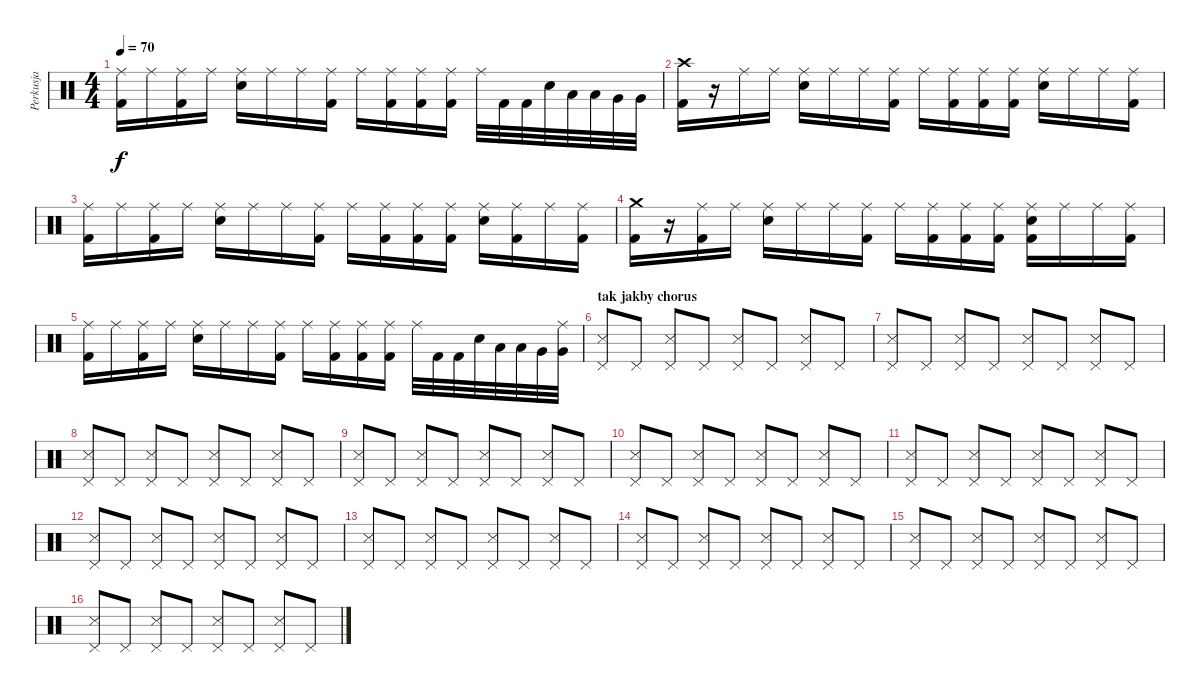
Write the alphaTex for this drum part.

\track ("Perkusja" "Perkusja") {instrument percussion}
\staff {score}
\articulation defaults
\ts (4 4)
\tempo 70
\clef neutral
\ks c
("Ride (middle)" "Kick (hit) 2").16{dy f} "Ride (middle)".16 ("Ride (middle)" "Kick (hit) 2").16 "Ride (middle)".16 ("Ride (middle)" "Electric Snare (hit)").16 "Ride (middle)".16 "Ride (middle)".16 ("Ride (middle)" "Kick (hit) 2").16 "Ride (middle)".16 ("Ride (middle)" "Kick (hit) 2").16 ("Ride (middle)" "Kick (hit) 2").16 ("Ride (middle)" "Kick (hit) 2").16 "Ride (middle)".32 "Kick (hit) 2".32 "Kick (hit) 2".32 "Electric Snare (hit)".32 "Low Tom (hit)".32 "Low Tom (hit)".32 "Very Low Tom (hit)".32 "Very Low Tom (hit)".32 |
("Crash high (hit)" "Kick (hit) 2").16 r.16 "Ride (middle)".16 "Ride (middle)".16 ("Ride (middle)" "Electric Snare (hit)").16 "Ride (middle)".16 "Ride (middle)".16 ("Ride (middle)" "Kick (hit) 2").16 "Ride (middle)".16 ("Ride (middle)" "Kick (hit) 2").16 ("Ride (middle)" "Kick (hit) 2").16 ("Ride (middle)" "Kick (hit) 2").16 ("Ride (middle)" "Electric Snare (hit)").16 "Ride (middle)".16 "Ride (middle)".16 ("Ride (middle)" "Kick (hit) 2").16 |
("Ride (middle)" "Kick (hit) 2").16 "Ride (middle)".16 ("Ride (middle)" "Kick (hit) 2").16 "Ride (middle)".16 ("Ride (middle)" "Electric Snare (hit)").16 "Ride (middle)".16 "Ride (middle)".16 ("Ride (middle)" "Kick (hit) 2").16 "Ride (middle)".16 ("Ride (middle)" "Kick (hit) 2").16 ("Ride (middle)" "Kick (hit) 2").16 ("Ride (middle)" "Kick (hit) 2").16 ("Ride (middle)" "Electric Snare (hit)").16 ("Ride (middle)" "Kick (hit) 2").16 "Ride (middle)".16 ("Ride (middle)" "Kick (hit) 2").16 |
("Crash medium (hit)" "Kick (hit) 2").16 r.16 ("Ride (middle)" "Kick (hit) 2").16 "Ride (middle)".16 ("Ride (middle)" "Electric Snare (hit)").16 "Ride (middle)".16 "Ride (middle)".16 ("Ride (middle)" "Kick (hit) 2").16 "Ride (middle)".16 ("Ride (middle)" "Kick (hit) 2").16 ("Ride (middle)" "Kick (hit) 2").16 ("Ride (middle)" "Kick (hit) 2").16 ("Ride (middle)" "Electric Snare (hit)" "Kick (hit) 2").16 "Ride (middle)".16 "Ride (middle)".16 ("Ride (middle)" "Kick (hit) 2").16 |
("Ride (middle)" "Kick (hit) 2").16 "Ride (middle)".16 ("Ride (middle)" "Kick (hit) 2").16 "Ride (middle)".16 ("Ride (middle)" "Electric Snare (hit)").16 "Ride (middle)".16 "Ride (middle)".16 ("Ride (middle)" "Kick (hit) 2").16 "Ride (middle)".16 ("Ride (middle)" "Kick (hit) 2").16 ("Ride (middle)" "Kick (hit) 2").16 ("Ride (middle)" "Kick (hit) 2").16 "Ride (middle)".32 "Kick (hit) 2".32 "Kick (hit) 2".32 "Electric Snare (hit)".32 "Low Tom (hit)".32 "Low Tom (hit)".32 "Very Low Tom (hit)".32 ("Ride (middle)" "Very Low Tom (hit)").32 |
\section ("" "tak jakby chorus")
("Pedal Hi-Hat (hit)" "Snare (side stick) 3").8 "Pedal Hi-Hat (hit)".8 ("Pedal Hi-Hat (hit)" "Snare (side stick) 3").8 "Pedal Hi-Hat (hit)".8 ("Pedal Hi-Hat (hit)" "Snare (side stick) 3").8 "Pedal Hi-Hat (hit)".8 ("Pedal Hi-Hat (hit)" "Snare (side stick) 3").8 "Pedal Hi-Hat (hit)".8 |
("Pedal Hi-Hat (hit)" "Snare (side stick) 3").8 "Pedal Hi-Hat (hit)".8 ("Pedal Hi-Hat (hit)" "Snare (side stick) 3").8 "Pedal Hi-Hat (hit)".8 ("Pedal Hi-Hat (hit)" "Snare (side stick) 3").8 "Pedal Hi-Hat (hit)".8 ("Pedal Hi-Hat (hit)" "Snare (side stick) 3").8 "Pedal Hi-Hat (hit)".8 |
("Pedal Hi-Hat (hit)" "Snare (side stick) 3").8 "Pedal Hi-Hat (hit)".8 ("Pedal Hi-Hat (hit)" "Snare (side stick) 3").8 "Pedal Hi-Hat (hit)".8 ("Pedal Hi-Hat (hit)" "Snare (side stick) 3").8 "Pedal Hi-Hat (hit)".8 ("Pedal Hi-Hat (hit)" "Snare (side stick) 3").8 "Pedal Hi-Hat (hit)".8 |
("Pedal Hi-Hat (hit)" "Snare (side stick) 3").8 "Pedal Hi-Hat (hit)".8 ("Pedal Hi-Hat (hit)" "Snare (side stick) 3").8 "Pedal Hi-Hat (hit)".8 ("Pedal Hi-Hat (hit)" "Snare (side stick) 3").8 "Pedal Hi-Hat (hit)".8 ("Pedal Hi-Hat (hit)" "Snare (side stick) 3").8 "Pedal Hi-Hat (hit)".8 |
("Pedal Hi-Hat (hit)" "Snare (side stick) 3").8 "Pedal Hi-Hat (hit)".8 ("Pedal Hi-Hat (hit)" "Snare (side stick) 3").8 "Pedal Hi-Hat (hit)".8 ("Pedal Hi-Hat (hit)" "Snare (side stick) 3").8 "Pedal Hi-Hat (hit)".8 ("Pedal Hi-Hat (hit)" "Snare (side stick) 3").8 "Pedal Hi-Hat (hit)".8 |
("Pedal Hi-Hat (hit)" "Snare (side stick) 3").8 "Pedal Hi-Hat (hit)".8 ("Pedal Hi-Hat (hit)" "Snare (side stick) 3").8 "Pedal Hi-Hat (hit)".8 ("Pedal Hi-Hat (hit)" "Snare (side stick) 3").8 "Pedal Hi-Hat (hit)".8 ("Pedal Hi-Hat (hit)" "Snare (side stick) 3").8 "Pedal Hi-Hat (hit)".8 |
("Pedal Hi-Hat (hit)" "Snare (side stick) 3").8 "Pedal Hi-Hat (hit)".8 ("Pedal Hi-Hat (hit)" "Snare (side stick) 3").8 "Pedal Hi-Hat (hit)".8 ("Pedal Hi-Hat (hit)" "Snare (side stick) 3").8 "Pedal Hi-Hat (hit)".8 ("Pedal Hi-Hat (hit)" "Snare (side stick) 3").8 "Pedal Hi-Hat (hit)".8 |
("Pedal Hi-Hat (hit)" "Snare (side stick) 3").8 "Pedal Hi-Hat (hit)".8 ("Pedal Hi-Hat (hit)" "Snare (side stick) 3").8 "Pedal Hi-Hat (hit)".8 ("Pedal Hi-Hat (hit)" "Snare (side stick) 3").8 "Pedal Hi-Hat (hit)".8 ("Pedal Hi-Hat (hit)" "Snare (side stick) 3").8 "Pedal Hi-Hat (hit)".8 |
("Pedal Hi-Hat (hit)" "Snare (side stick) 3").8 "Pedal Hi-Hat (hit)".8 ("Pedal Hi-Hat (hit)" "Snare (side stick) 3").8 "Pedal Hi-Hat (hit)".8 ("Pedal Hi-Hat (hit)" "Snare (side stick) 3").8 "Pedal Hi-Hat (hit)".8 ("Pedal Hi-Hat (hit)" "Snare (side stick) 3").8 "Pedal Hi-Hat (hit)".8 |
("Pedal Hi-Hat (hit)" "Snare (side stick) 3").8 "Pedal Hi-Hat (hit)".8 ("Pedal Hi-Hat (hit)" "Snare (side stick) 3").8 "Pedal Hi-Hat (hit)".8 ("Pedal Hi-Hat (hit)" "Snare (side stick) 3").8 "Pedal Hi-Hat (hit)".8 ("Pedal Hi-Hat (hit)" "Snare (side stick) 3").8 "Pedal Hi-Hat (hit)".8 |
("Pedal Hi-Hat (hit)" "Snare (side stick) 3").8 "Pedal Hi-Hat (hit)".8 ("Pedal Hi-Hat (hit)" "Snare (side stick) 3").8 "Pedal Hi-Hat (hit)".8 ("Pedal Hi-Hat (hit)" "Snare (side stick) 3").8 "Pedal Hi-Hat (hit)".8 ("Pedal Hi-Hat (hit)" "Snare (side stick) 3").8 "Pedal Hi-Hat (hit)".8
